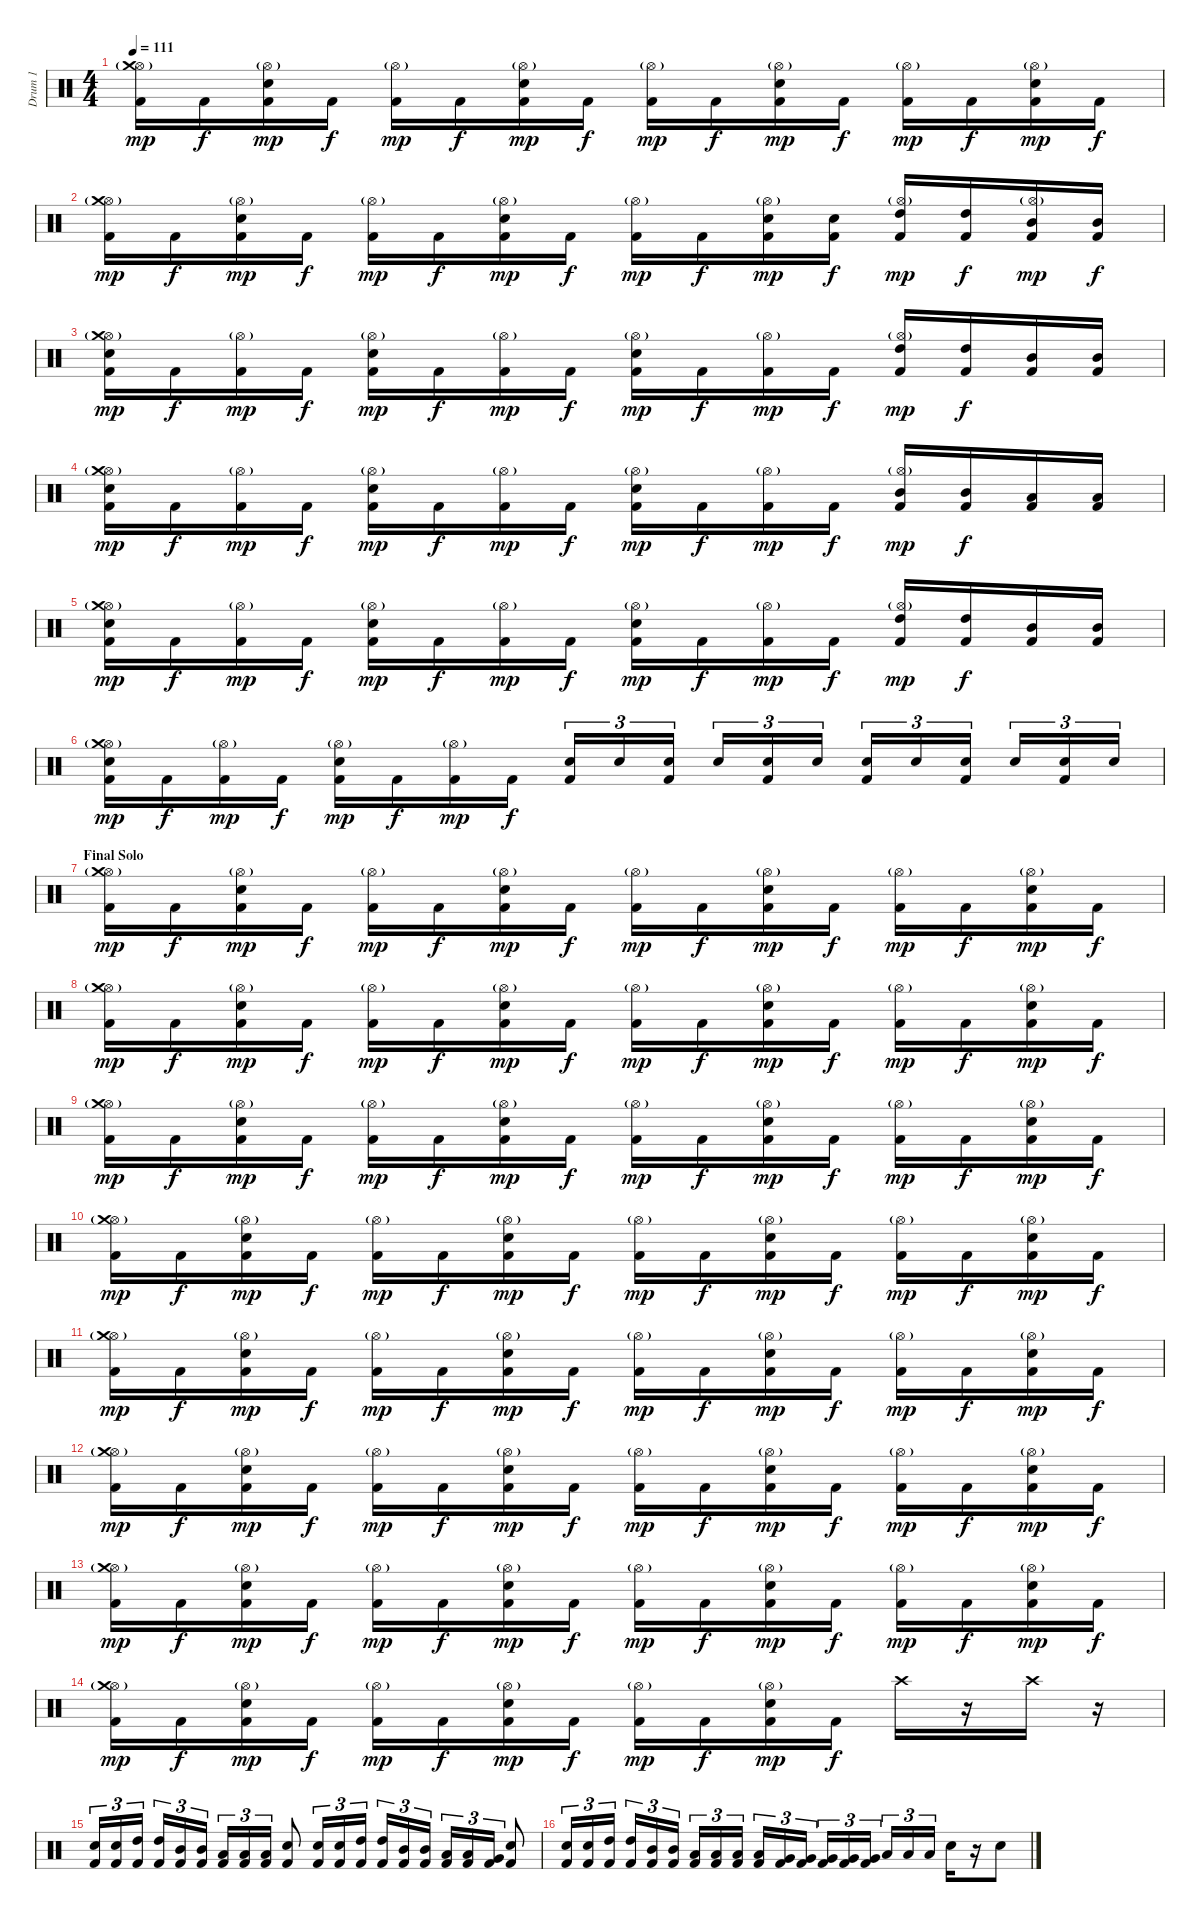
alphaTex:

\track ("Drum 1" "Drum 1") {instrument percussion}
\staff {score}
\articulation defaults
\ts (4 4)
\tempo 111
\clef neutral
\ks c
("Kick (hit) 2" "Hi-Hat (open)"{g} "Crash medium (hit)").16{dy mp} "Kick (hit) 2".16{dy f} ("Kick (hit) 2" "Hi-Hat (open)"{g} "Electric Snare (hit)").16{dy mp} "Kick (hit) 2".16{dy f} ("Kick (hit) 2" "Hi-Hat (open)"{g}).16{dy mp} "Kick (hit) 2".16{dy f} ("Kick (hit) 2" "Hi-Hat (open)"{g} "Electric Snare (hit)").16{dy mp} "Kick (hit) 2".16{dy f} ("Kick (hit) 2" "Hi-Hat (open)"{g}).16{dy mp} "Kick (hit) 2".16{dy f} ("Kick (hit) 2" "Hi-Hat (open)"{g} "Electric Snare (hit)").16{dy mp} "Kick (hit) 2".16{dy f} ("Kick (hit) 2" "Hi-Hat (open)"{g}).16{dy mp} "Kick (hit) 2".16{dy f} ("Kick (hit) 2" "Hi-Hat (open)"{g} "Electric Snare (hit)").16{dy mp} "Kick (hit) 2".16{dy f} |
("Kick (hit) 2" "Hi-Hat (open)"{g} "Crash medium (hit)").16{dy mp} "Kick (hit) 2".16{dy f} ("Kick (hit) 2" "Hi-Hat (open)"{g} "Electric Snare (hit)").16{dy mp} "Kick (hit) 2".16{dy f} ("Kick (hit) 2" "Hi-Hat (open)"{g}).16{dy mp} "Kick (hit) 2".16{dy f} ("Kick (hit) 2" "Hi-Hat (open)"{g} "Electric Snare (hit)").16{dy mp} "Kick (hit) 2".16{dy f} ("Kick (hit) 2" "Hi-Hat (open)"{g}).16{dy mp} "Kick (hit) 2".16{dy f} ("Kick (hit) 2" "Hi-Hat (open)"{g} "Electric Snare (hit)").16{dy mp} ("Kick (hit) 2" "Electric Snare (hit)").16{dy f} ("Kick (hit) 2" "Hi-Hat (open)"{g} "High Tom (hit)").16{dy mp} ("Kick (hit) 2" "High Tom (hit)").16{dy f} ("Kick (hit) 2" "Hi-Hat (open)"{g} "Mid Tom (hit)").16{dy mp} ("Kick (hit) 2" "Mid Tom (hit)").16{dy f} |
("Kick (hit) 2" "Hi-Hat (open)"{g} "Crash medium (hit)" "Electric Snare (hit)").16{dy mp} "Kick (hit) 2".16{dy f} ("Kick (hit) 2" "Hi-Hat (open)"{g}).16{dy mp} "Kick (hit) 2".16{dy f} ("Kick (hit) 2" "Hi-Hat (open)"{g} "Electric Snare (hit)").16{dy mp} "Kick (hit) 2".16{dy f} ("Kick (hit) 2" "Hi-Hat (open)"{g}).16{dy mp} "Kick (hit) 2".16{dy f} ("Kick (hit) 2" "Hi-Hat (open)"{g} "Electric Snare (hit)").16{dy mp} "Kick (hit) 2".16{dy f} ("Kick (hit) 2" "Hi-Hat (open)"{g}).16{dy mp} "Kick (hit) 2".16{dy f} ("Kick (hit) 2" "Hi-Hat (open)"{g} "High Tom (hit)").16{dy mp} ("Kick (hit) 2" "High Tom (hit)").16{dy f} ("Kick (hit) 2" "Mid Tom (hit)").16 ("Kick (hit) 2" "Mid Tom (hit)").16 |
("Kick (hit) 2" "Hi-Hat (open)"{g} "Crash medium (hit)" "Electric Snare (hit)").16{dy mp} "Kick (hit) 2".16{dy f} ("Kick (hit) 2" "Hi-Hat (open)"{g}).16{dy mp} "Kick (hit) 2".16{dy f} ("Kick (hit) 2" "Hi-Hat (open)"{g} "Electric Snare (hit)").16{dy mp} "Kick (hit) 2".16{dy f} ("Kick (hit) 2" "Hi-Hat (open)"{g}).16{dy mp} "Kick (hit) 2".16{dy f} ("Kick (hit) 2" "Hi-Hat (open)"{g} "Electric Snare (hit)").16{dy mp} "Kick (hit) 2".16{dy f} ("Kick (hit) 2" "Hi-Hat (open)"{g}).16{dy mp} "Kick (hit) 2".16{dy f} ("Kick (hit) 2" "Hi-Hat (open)"{g} "Mid Tom (hit)").16{dy mp} ("Kick (hit) 2" "Mid Tom (hit)").16{dy f} ("Kick (hit) 2" "Low Tom (hit)").16 ("Kick (hit) 2" "Low Tom (hit)").16 |
("Kick (hit) 2" "Hi-Hat (open)"{g} "Crash medium (hit)" "Electric Snare (hit)").16{dy mp} "Kick (hit) 2".16{dy f} ("Kick (hit) 2" "Hi-Hat (open)"{g}).16{dy mp} "Kick (hit) 2".16{dy f} ("Kick (hit) 2" "Hi-Hat (open)"{g} "Electric Snare (hit)").16{dy mp} "Kick (hit) 2".16{dy f} ("Kick (hit) 2" "Hi-Hat (open)"{g}).16{dy mp} "Kick (hit) 2".16{dy f} ("Kick (hit) 2" "Hi-Hat (open)"{g} "Electric Snare (hit)").16{dy mp} "Kick (hit) 2".16{dy f} ("Kick (hit) 2" "Hi-Hat (open)"{g}).16{dy mp} "Kick (hit) 2".16{dy f} ("Kick (hit) 2" "Hi-Hat (open)"{g} "High Tom (hit)").16{dy mp} ("Kick (hit) 2" "High Tom (hit)").16{dy f} ("Kick (hit) 2" "Mid Tom (hit)").16 ("Kick (hit) 2" "Mid Tom (hit)").16 |
("Kick (hit) 2" "Hi-Hat (open)"{g} "Crash medium (hit)" "Electric Snare (hit)").16{dy mp} "Kick (hit) 2".16{dy f} ("Kick (hit) 2" "Hi-Hat (open)"{g}).16{dy mp} "Kick (hit) 2".16{dy f} ("Kick (hit) 2" "Hi-Hat (open)"{g} "Electric Snare (hit)").16{dy mp} "Kick (hit) 2".16{dy f} ("Kick (hit) 2" "Hi-Hat (open)"{g}).16{dy mp} "Kick (hit) 2".16{dy f} ("Kick (hit) 2" "Electric Snare (hit)").16{tu (3 2)} "Electric Snare (hit)".16{tu (3 2)} ("Kick (hit) 2" "Electric Snare (hit)").16{tu (3 2)} "Electric Snare (hit)".16{tu (3 2)} ("Kick (hit) 2" "Electric Snare (hit)").16{tu (3 2)} "Electric Snare (hit)".16{tu (3 2)} ("Kick (hit) 2" "Electric Snare (hit)").16{tu (3 2)} "Electric Snare (hit)".16{tu (3 2)} ("Kick (hit) 2" "Electric Snare (hit)").16{tu (3 2)} "Electric Snare (hit)".16{tu (3 2)} ("Kick (hit) 2" "Electric Snare (hit)").16{tu (3 2)} "Electric Snare (hit)".16{tu (3 2)} |
\section ("" "Final Solo")
("Kick (hit) 2" "Hi-Hat (open)"{g} "Crash medium (hit)").16{dy mp} "Kick (hit) 2".16{dy f} ("Kick (hit) 2" "Hi-Hat (open)"{g} "Electric Snare (hit)").16{dy mp} "Kick (hit) 2".16{dy f} ("Kick (hit) 2" "Hi-Hat (open)"{g}).16{dy mp} "Kick (hit) 2".16{dy f} ("Kick (hit) 2" "Hi-Hat (open)"{g} "Electric Snare (hit)").16{dy mp} "Kick (hit) 2".16{dy f} ("Kick (hit) 2" "Hi-Hat (open)"{g}).16{dy mp} "Kick (hit) 2".16{dy f} ("Kick (hit) 2" "Hi-Hat (open)"{g} "Electric Snare (hit)").16{dy mp} "Kick (hit) 2".16{dy f} ("Kick (hit) 2" "Hi-Hat (open)"{g}).16{dy mp} "Kick (hit) 2".16{dy f} ("Kick (hit) 2" "Hi-Hat (open)"{g} "Electric Snare (hit)").16{dy mp} "Kick (hit) 2".16{dy f} |
("Kick (hit) 2" "Hi-Hat (open)"{g} "Crash medium (hit)").16{dy mp} "Kick (hit) 2".16{dy f} ("Kick (hit) 2" "Hi-Hat (open)"{g} "Electric Snare (hit)").16{dy mp} "Kick (hit) 2".16{dy f} ("Kick (hit) 2" "Hi-Hat (open)"{g}).16{dy mp} "Kick (hit) 2".16{dy f} ("Kick (hit) 2" "Hi-Hat (open)"{g} "Electric Snare (hit)").16{dy mp} "Kick (hit) 2".16{dy f} ("Kick (hit) 2" "Hi-Hat (open)"{g}).16{dy mp} "Kick (hit) 2".16{dy f} ("Kick (hit) 2" "Hi-Hat (open)"{g} "Electric Snare (hit)").16{dy mp} "Kick (hit) 2".16{dy f} ("Kick (hit) 2" "Hi-Hat (open)"{g}).16{dy mp} "Kick (hit) 2".16{dy f} ("Kick (hit) 2" "Hi-Hat (open)"{g} "Electric Snare (hit)").16{dy mp} "Kick (hit) 2".16{dy f} |
("Kick (hit) 2" "Hi-Hat (open)"{g} "Crash medium (hit)").16{dy mp} "Kick (hit) 2".16{dy f} ("Kick (hit) 2" "Hi-Hat (open)"{g} "Electric Snare (hit)").16{dy mp} "Kick (hit) 2".16{dy f} ("Kick (hit) 2" "Hi-Hat (open)"{g}).16{dy mp} "Kick (hit) 2".16{dy f} ("Kick (hit) 2" "Hi-Hat (open)"{g} "Electric Snare (hit)").16{dy mp} "Kick (hit) 2".16{dy f} ("Kick (hit) 2" "Hi-Hat (open)"{g}).16{dy mp} "Kick (hit) 2".16{dy f} ("Kick (hit) 2" "Hi-Hat (open)"{g} "Electric Snare (hit)").16{dy mp} "Kick (hit) 2".16{dy f} ("Kick (hit) 2" "Hi-Hat (open)"{g}).16{dy mp} "Kick (hit) 2".16{dy f} ("Kick (hit) 2" "Hi-Hat (open)"{g} "Electric Snare (hit)").16{dy mp} "Kick (hit) 2".16{dy f} |
("Kick (hit) 2" "Hi-Hat (open)"{g} "Crash medium (hit)").16{dy mp} "Kick (hit) 2".16{dy f} ("Kick (hit) 2" "Hi-Hat (open)"{g} "Electric Snare (hit)").16{dy mp} "Kick (hit) 2".16{dy f} ("Kick (hit) 2" "Hi-Hat (open)"{g}).16{dy mp} "Kick (hit) 2".16{dy f} ("Kick (hit) 2" "Hi-Hat (open)"{g} "Electric Snare (hit)").16{dy mp} "Kick (hit) 2".16{dy f} ("Kick (hit) 2" "Hi-Hat (open)"{g}).16{dy mp} "Kick (hit) 2".16{dy f} ("Kick (hit) 2" "Hi-Hat (open)"{g} "Electric Snare (hit)").16{dy mp} "Kick (hit) 2".16{dy f} ("Kick (hit) 2" "Hi-Hat (open)"{g}).16{dy mp} "Kick (hit) 2".16{dy f} ("Kick (hit) 2" "Hi-Hat (open)"{g} "Electric Snare (hit)").16{dy mp} "Kick (hit) 2".16{dy f} |
("Kick (hit) 2" "Hi-Hat (open)"{g} "Crash medium (hit)").16{dy mp} "Kick (hit) 2".16{dy f} ("Kick (hit) 2" "Hi-Hat (open)"{g} "Electric Snare (hit)").16{dy mp} "Kick (hit) 2".16{dy f} ("Kick (hit) 2" "Hi-Hat (open)"{g}).16{dy mp} "Kick (hit) 2".16{dy f} ("Kick (hit) 2" "Hi-Hat (open)"{g} "Electric Snare (hit)").16{dy mp} "Kick (hit) 2".16{dy f} ("Kick (hit) 2" "Hi-Hat (open)"{g}).16{dy mp} "Kick (hit) 2".16{dy f} ("Kick (hit) 2" "Hi-Hat (open)"{g} "Electric Snare (hit)").16{dy mp} "Kick (hit) 2".16{dy f} ("Kick (hit) 2" "Hi-Hat (open)"{g}).16{dy mp} "Kick (hit) 2".16{dy f} ("Kick (hit) 2" "Hi-Hat (open)"{g} "Electric Snare (hit)").16{dy mp} "Kick (hit) 2".16{dy f} |
("Kick (hit) 2" "Hi-Hat (open)"{g} "Crash medium (hit)").16{dy mp} "Kick (hit) 2".16{dy f} ("Kick (hit) 2" "Hi-Hat (open)"{g} "Electric Snare (hit)").16{dy mp} "Kick (hit) 2".16{dy f} ("Kick (hit) 2" "Hi-Hat (open)"{g}).16{dy mp} "Kick (hit) 2".16{dy f} ("Kick (hit) 2" "Hi-Hat (open)"{g} "Electric Snare (hit)").16{dy mp} "Kick (hit) 2".16{dy f} ("Kick (hit) 2" "Hi-Hat (open)"{g}).16{dy mp} "Kick (hit) 2".16{dy f} ("Kick (hit) 2" "Hi-Hat (open)"{g} "Electric Snare (hit)").16{dy mp} "Kick (hit) 2".16{dy f} ("Kick (hit) 2" "Hi-Hat (open)"{g}).16{dy mp} "Kick (hit) 2".16{dy f} ("Kick (hit) 2" "Hi-Hat (open)"{g} "Electric Snare (hit)").16{dy mp} "Kick (hit) 2".16{dy f} |
("Kick (hit) 2" "Hi-Hat (open)"{g} "Crash medium (hit)").16{dy mp} "Kick (hit) 2".16{dy f} ("Kick (hit) 2" "Hi-Hat (open)"{g} "Electric Snare (hit)").16{dy mp} "Kick (hit) 2".16{dy f} ("Kick (hit) 2" "Hi-Hat (open)"{g}).16{dy mp} "Kick (hit) 2".16{dy f} ("Kick (hit) 2" "Hi-Hat (open)"{g} "Electric Snare (hit)").16{dy mp} "Kick (hit) 2".16{dy f} ("Kick (hit) 2" "Hi-Hat (open)"{g}).16{dy mp} "Kick (hit) 2".16{dy f} ("Kick (hit) 2" "Hi-Hat (open)"{g} "Electric Snare (hit)").16{dy mp} "Kick (hit) 2".16{dy f} ("Kick (hit) 2" "Hi-Hat (open)"{g}).16{dy mp} "Kick (hit) 2".16{dy f} ("Kick (hit) 2" "Hi-Hat (open)"{g} "Electric Snare (hit)").16{dy mp} "Kick (hit) 2".16{dy f} |
("Kick (hit) 2" "Hi-Hat (open)"{g} "Crash medium (hit)").16{dy mp} "Kick (hit) 2".16{dy f} ("Kick (hit) 2" "Hi-Hat (open)"{g} "Electric Snare (hit)").16{dy mp} "Kick (hit) 2".16{dy f} ("Kick (hit) 2" "Hi-Hat (open)"{g}).16{dy mp} "Kick (hit) 2".16{dy f} ("Kick (hit) 2" "Hi-Hat (open)"{g} "Electric Snare (hit)").16{dy mp} "Kick (hit) 2".16{dy f} ("Kick (hit) 2" "Hi-Hat (open)"{g}).16{dy mp} "Kick (hit) 2".16{dy f} ("Kick (hit) 2" "Hi-Hat (open)"{g} "Electric Snare (hit)").16{dy mp} "Kick (hit) 2".16{dy f} "Crash high (hit)".16 r.16 "Crash high (hit)".16 r.16 |
("Electric Snare (hit)" "Kick (hit) 2").16{tu (3 2)} ("Electric Snare (hit)" "Kick (hit) 2").16{tu (3 2)} ("High Tom (hit)" "Kick (hit) 2").16{tu (3 2)} ("High Tom (hit)" "Kick (hit) 2").16{tu (3 2)} ("Mid Tom (hit)" "Kick (hit) 2").16{tu (3 2)} ("Mid Tom (hit)" "Kick (hit) 2").16{tu (3 2)} ("Low Tom (hit)" "Kick (hit) 2").16{tu (3 2)} ("Low Tom (hit)" "Kick (hit) 2").16{tu (3 2)} ("Low Tom (hit)" "Kick (hit) 2").16{tu (3 2)} ("Electric Snare (hit)" "Kick (hit) 2").8 ("Electric Snare (hit)" "Kick (hit) 2").16{tu (3 2)} ("Electric Snare (hit)" "Kick (hit) 2").16{tu (3 2)} ("High Tom (hit)" "Kick (hit) 2").16{tu (3 2)} ("High Tom (hit)" "Kick (hit) 2").16{tu (3 2)} ("Mid Tom (hit)" "Kick (hit) 2").16{tu (3 2)} ("Mid Tom (hit)" "Kick (hit) 2").16{tu (3 2)} ("Low Tom (hit)" "Kick (hit) 2").16{tu (3 2)} ("Low Tom (hit)" "Kick (hit) 2").16{tu (3 2)} ("Very Low Tom (hit)" "Kick (hit) 2").16{tu (3 2)} ("Electric Snare (hit)" "Kick (hit) 2").8 |
("Electric Snare (hit)" "Kick (hit) 2").16{tu (3 2)} ("Electric Snare (hit)" "Kick (hit) 2").16{tu (3 2)} ("High Tom (hit)" "Kick (hit) 2").16{tu (3 2)} ("High Tom (hit)" "Kick (hit) 2").16{tu (3 2)} ("Mid Tom (hit)" "Kick (hit) 2").16{tu (3 2)} ("Mid Tom (hit)" "Kick (hit) 2").16{tu (3 2)} ("Low Tom (hit)" "Kick (hit) 2").16{tu (3 2)} ("Low Tom (hit)" "Kick (hit) 2").16{tu (3 2)} ("Low Tom (hit)" "Kick (hit) 2").16{tu (3 2)} ("Low Tom (hit)" "Kick (hit) 2").16{tu (3 2)} ("Very Low Tom (hit)" "Kick (hit) 2").16{tu (3 2)} ("Very Low Tom (hit)" "Kick (hit) 2").16{tu (3 2)} ("Very Low Tom (hit)" "Kick (hit) 2").16{tu (3 2)} ("Very Low Tom (hit)" "Kick (hit) 2").16{tu (3 2)} ("Very Low Tom (hit)" "Kick (hit) 2").16{tu (3 2)} "Low Floor Tom (hit)".16{tu (3 2)} "Low Floor Tom (hit)".16{tu (3 2)} "Low Floor Tom (hit)".16{tu (3 2)} "Electric Snare (hit)".16 r.16 "Electric Snare (hit)".8
